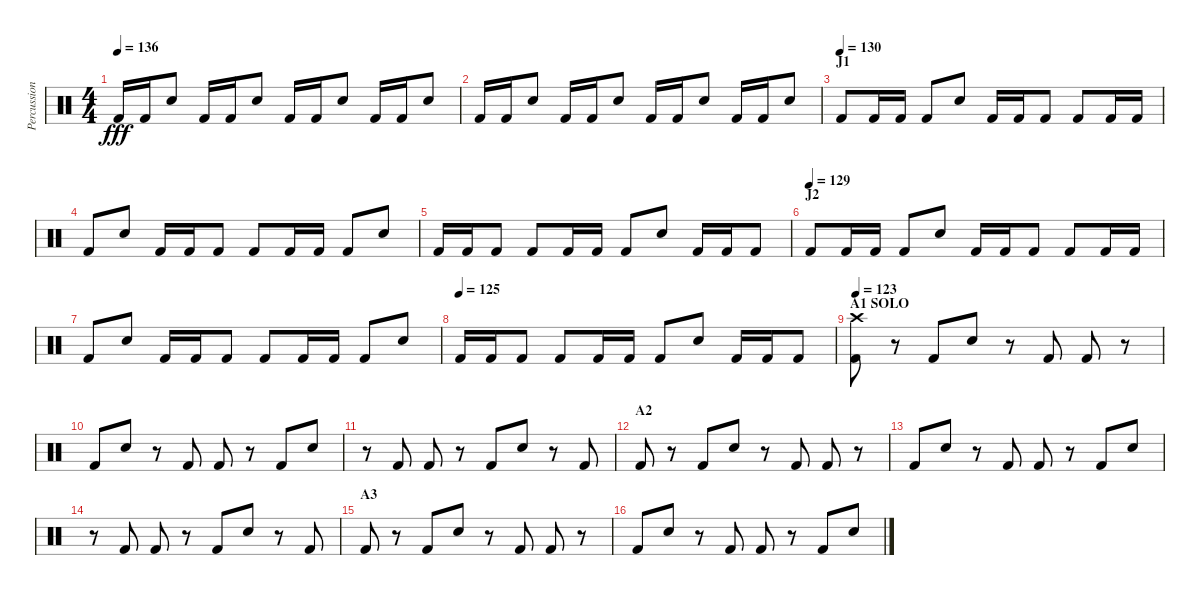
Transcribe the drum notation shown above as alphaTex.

\track ("Percussion" "Percussion") {instrument percussion}
\staff {score}
\articulation defaults
\ts (4 4)
\tempo 136
\clef neutral
\ks c "Kick (hit) 2".16{dy fff} "Kick (hit) 2".16 "Electric Snare (hit)".8 "Kick (hit) 2".16 "Kick (hit) 2".16 "Electric Snare (hit)".8 "Kick (hit) 2".16 "Kick (hit) 2".16 "Electric Snare (hit)".8 "Kick (hit) 2".16 "Kick (hit) 2".16 "Electric Snare (hit)".8
|
"Kick (hit) 2".16 "Kick (hit) 2".16 "Electric Snare (hit)".8 "Kick (hit) 2".16 "Kick (hit) 2".16 "Electric Snare (hit)".8 "Kick (hit) 2".16 "Kick (hit) 2".16 "Electric Snare (hit)".8 "Kick (hit) 2".16 "Kick (hit) 2".16 "Electric Snare (hit)".8 |
\section ("" "J1")
\tempo (130)
"Kick (hit) 2".8 "Kick (hit) 2".16 "Kick (hit) 2".16 "Kick (hit) 2".8 "Electric Snare (hit)".8 "Kick (hit) 2".16 "Kick (hit) 2".16 "Kick (hit) 2".8 "Kick (hit) 2".8 "Kick (hit) 2".16 "Kick (hit) 2".16 |
"Kick (hit) 2".8 "Electric Snare (hit)".8 "Kick (hit) 2".16 "Kick (hit) 2".16 "Kick (hit) 2".8 "Kick (hit) 2".8 "Kick (hit) 2".16 "Kick (hit) 2".16 "Kick (hit) 2".8 "Electric Snare (hit)".8 |
"Kick (hit) 2".16 "Kick (hit) 2".16 "Kick (hit) 2".8 "Kick (hit) 2".8 "Kick (hit) 2".16 "Kick (hit) 2".16 "Kick (hit) 2".8 "Electric Snare (hit)".8 "Kick (hit) 2".16 "Kick (hit) 2".16 "Kick (hit) 2".8 |
\section ("" "J2")
\tempo (129)
"Kick (hit) 2".8 "Kick (hit) 2".16 "Kick (hit) 2".16 "Kick (hit) 2".8 "Electric Snare (hit)".8 "Kick (hit) 2".16 "Kick (hit) 2".16 "Kick (hit) 2".8 "Kick (hit) 2".8 "Kick (hit) 2".16 "Kick (hit) 2".16 |
"Kick (hit) 2".8 "Electric Snare (hit)".8 "Kick (hit) 2".16 "Kick (hit) 2".16 "Kick (hit) 2".8 "Kick (hit) 2".8 "Kick (hit) 2".16 "Kick (hit) 2".16 "Kick (hit) 2".8 "Electric Snare (hit)".8 |
\tempo (125)
"Kick (hit) 2".16 "Kick (hit) 2".16 "Kick (hit) 2".8 "Kick (hit) 2".8 "Kick (hit) 2".16 "Kick (hit) 2".16 "Kick (hit) 2".8 "Electric Snare (hit)".8 "Kick (hit) 2".16 "Kick (hit) 2".16 "Kick (hit) 2".8 |
\section ("" "A1 SOLO")
\tempo 123
("Kick (hit) 2" "Crash high (hit)").8 r.8 "Kick (hit) 2".8 "Electric Snare (hit)".8 r.8 "Kick (hit) 2".8 "Kick (hit) 2".8 r.8 |
"Kick (hit) 2".8 "Electric Snare (hit)".8 r.8 "Kick (hit) 2".8 "Kick (hit) 2".8 r.8 "Kick (hit) 2".8 "Electric Snare (hit)".8 |
r.8 "Kick (hit) 2".8 "Kick (hit) 2".8 r.8 "Kick (hit) 2".8 "Electric Snare (hit)".8 r.8 "Kick (hit) 2".8 |
\section ("" "A2")
"Kick (hit) 2".8 r.8 "Kick (hit) 2".8 "Electric Snare (hit)".8 r.8 "Kick (hit) 2".8 "Kick (hit) 2".8 r.8 |
"Kick (hit) 2".8 "Electric Snare (hit)".8 r.8 "Kick (hit) 2".8 "Kick (hit) 2".8 r.8 "Kick (hit) 2".8 "Electric Snare (hit)".8 |
r.8 "Kick (hit) 2".8 "Kick (hit) 2".8 r.8 "Kick (hit) 2".8 "Electric Snare (hit)".8 r.8 "Kick (hit) 2".8 |
\section ("" "A3")
"Kick (hit) 2".8 r.8 "Kick (hit) 2".8 "Electric Snare (hit)".8 r.8 "Kick (hit) 2".8 "Kick (hit) 2".8 r.8 |
"Kick (hit) 2".8 "Electric Snare (hit)".8 r.8 "Kick (hit) 2".8 "Kick (hit) 2".8 r.8 "Kick (hit) 2".8 "Electric Snare (hit)".8
